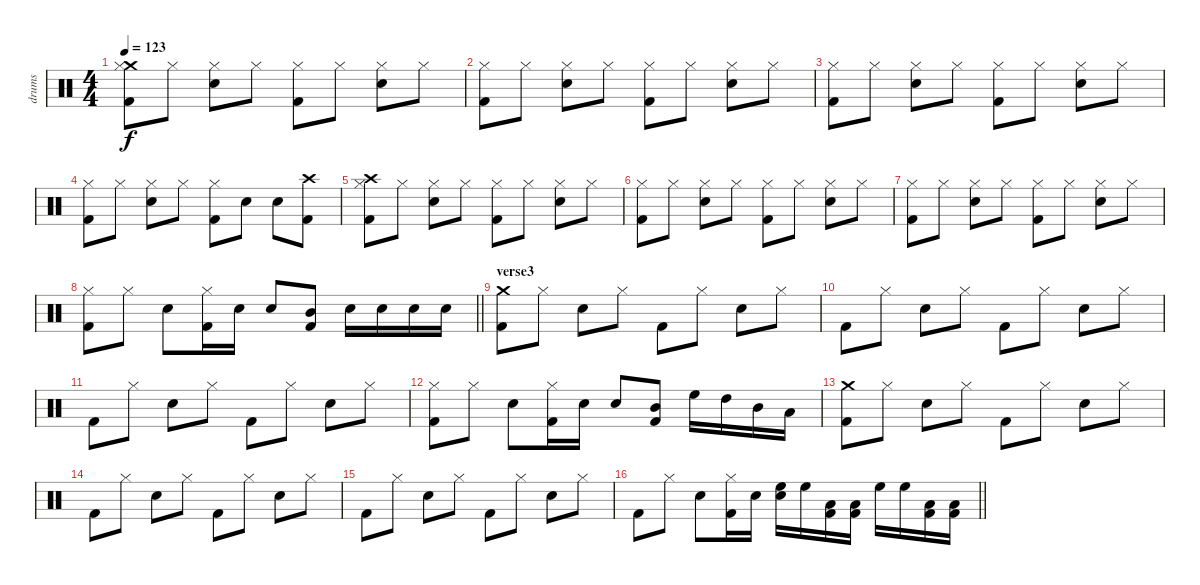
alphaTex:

\track ("drums" "drums") {instrument percussion}
\staff {score}
\articulation defaults
\ts (4 4)
\tempo 123
\clef neutral
\ks c
("Crash medium (hit)" "Hi-Hat (closed)" "Kick (hit) 2").8{dy f} "Hi-Hat (closed)".8 ("Hi-Hat (closed)" "Snare (hit) 2").8 "Hi-Hat (closed)".8 ("Hi-Hat (closed)" "Kick (hit) 2").8 "Hi-Hat (closed)".8 ("Hi-Hat (closed)" "Snare (hit) 2").8 "Hi-Hat (closed)".8 |
("Hi-Hat (closed)" "Kick (hit) 2").8 "Hi-Hat (closed)".8 ("Hi-Hat (closed)" "Snare (hit) 2").8 "Hi-Hat (closed)".8 ("Hi-Hat (closed)" "Kick (hit) 2").8 "Hi-Hat (closed)".8 ("Hi-Hat (closed)" "Snare (hit) 2").8 "Hi-Hat (closed)".8 |
("Hi-Hat (closed)" "Kick (hit) 2").8 "Hi-Hat (closed)".8 ("Hi-Hat (closed)" "Snare (hit) 2").8 "Hi-Hat (closed)".8 ("Hi-Hat (closed)" "Kick (hit) 2").8 "Hi-Hat (closed)".8 ("Hi-Hat (closed)" "Snare (hit) 2").8 "Hi-Hat (closed)".8 |
("Hi-Hat (closed)" "Kick (hit) 2").8 "Hi-Hat (closed)".8 ("Hi-Hat (closed)" "Snare (hit) 2").8 "Hi-Hat (closed)".8 ("Hi-Hat (closed)" "Kick (hit) 2").8 "Snare (hit) 2".8 "Snare (hit) 2".8 ("Crash high (hit)" "Kick (hit) 2").8 |
("Crash high (hit)" "Hi-Hat (closed)" "Kick (hit) 2").8 "Hi-Hat (closed)".8 ("Hi-Hat (closed)" "Snare (hit) 2").8 "Hi-Hat (closed)".8 ("Hi-Hat (closed)" "Kick (hit) 2").8 "Hi-Hat (closed)".8 ("Hi-Hat (closed)" "Snare (hit) 2").8 "Hi-Hat (closed)".8 |
("Hi-Hat (closed)" "Kick (hit) 2").8 "Hi-Hat (closed)".8 ("Hi-Hat (closed)" "Snare (hit) 2").8 "Hi-Hat (closed)".8 ("Hi-Hat (closed)" "Kick (hit) 2").8 "Hi-Hat (closed)".8 ("Hi-Hat (closed)" "Snare (hit) 2").8 "Hi-Hat (closed)".8 |
("Hi-Hat (closed)" "Kick (hit) 2").8 "Hi-Hat (closed)".8 ("Hi-Hat (closed)" "Snare (hit) 2").8 "Hi-Hat (closed)".8 ("Hi-Hat (closed)" "Kick (hit) 2").8 "Hi-Hat (closed)".8 ("Hi-Hat (closed)" "Snare (hit) 2").8 "Hi-Hat (closed)".8 |
\barLineRight lightlight
("Hi-Hat (closed)" "Kick (hit) 2").8 "Hi-Hat (closed)".8 "Snare (hit) 2".8 ("Hi-Hat (closed)" "Kick (hit) 2").16 "Snare (hit) 2".16 "Snare (hit) 2".8 ("Mid Tom (hit)" "Kick (hit) 2").8 "Snare (hit) 2".16 "Snare (hit) 2".16 "Snare (hit) 2".16 "Snare (hit) 2".16 |
\section ("" "verse3")
("Crash medium (hit)" "Kick (hit) 2").8 "Hi-Hat (closed)".8 "Snare (hit) 2".8 "Hi-Hat (closed)".8 "Kick (hit) 2".8 "Hi-Hat (closed)".8 "Snare (hit) 2".8 "Hi-Hat (closed)".8 |
"Kick (hit) 2".8 "Hi-Hat (closed)".8 "Snare (hit) 2".8 "Hi-Hat (closed)".8 "Kick (hit) 2".8 "Hi-Hat (closed)".8 "Snare (hit) 2".8 "Hi-Hat (closed)".8 |
"Kick (hit) 2".8 "Hi-Hat (closed)".8 "Snare (hit) 2".8 "Hi-Hat (closed)".8 "Kick (hit) 2".8 "Hi-Hat (closed)".8 "Snare (hit) 2".8 "Hi-Hat (closed)".8 |
("Hi-Hat (closed)" "Kick (hit) 2").8 "Hi-Hat (closed)".8 "Snare (hit) 2".8 ("Hi-Hat (closed)" "Kick (hit) 2").16 "Snare (hit) 2".16 "Snare (hit) 2".8 ("Mid Tom (hit)" "Kick (hit) 2").8 "High Floor Tom (hit)".16 "High Tom (hit)".16 "Mid Tom (hit)".16 "Low Tom (hit)".16 |
("Crash medium (hit)" "Kick (hit) 2").8 "Hi-Hat (closed)".8 "Snare (hit) 2".8 "Hi-Hat (closed)".8 "Kick (hit) 2".8 "Hi-Hat (closed)".8 "Snare (hit) 2".8 "Hi-Hat (closed)".8 |
"Kick (hit) 2".8 "Hi-Hat (closed)".8 "Snare (hit) 2".8 "Hi-Hat (closed)".8 "Kick (hit) 2".8 "Hi-Hat (closed)".8 "Snare (hit) 2".8 "Hi-Hat (closed)".8 |
"Kick (hit) 2".8 "Hi-Hat (closed)".8 "Snare (hit) 2".8 "Hi-Hat (closed)".8 "Kick (hit) 2".8 "Hi-Hat (closed)".8 "Snare (hit) 2".8 "Hi-Hat (closed)".8 |
\barLineRight lightlight "Kick (hit) 2".8 "Hi-Hat (closed)".8 "Snare (hit) 2".8
("Hi-Hat (closed)" "Kick (hit) 2").16 "Snare (hit) 2".16 ("High Floor Tom (hit)" "Snare (hit) 2").16 "High Floor Tom (hit)".16 ("Low Tom (hit)" "Kick (hit) 2").16 ("Low Tom (hit)" "Kick (hit) 2").16 "High Floor Tom (hit)".16 "High Floor Tom (hit)".16 ("Low Tom (hit)" "Kick (hit) 2").16 ("Low Tom (hit)" "Kick (hit) 2").16
